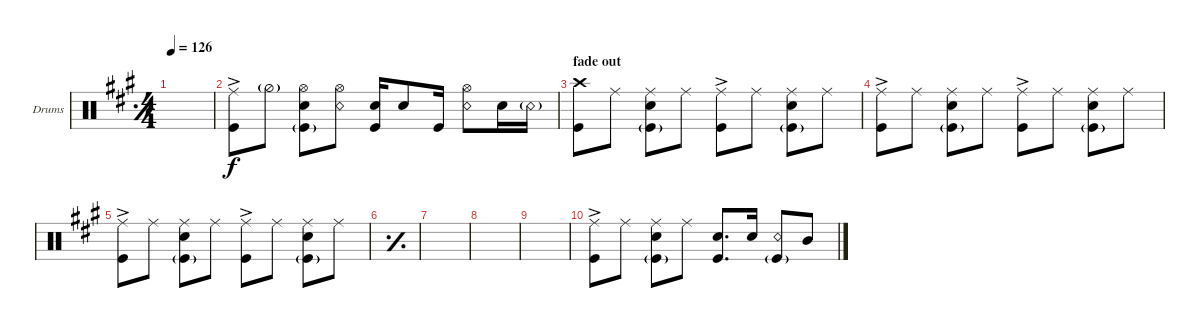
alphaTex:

\bracketExtendMode groupsimilarinstruments
\firstSystemTrackNameOrientation horizontal
\otherSystemsTrackNameOrientation horizontal
\track ("Drumkit" "Drums") {instrument percussion}
\staff {score}
\articulation defaults
\ts (4 4)
\tempo 126
\clef neutral
\simile simple
\ks a
|
("Ride (middle)"{ac} "Kick (hit)").8 "Hi-Hat (half)"{g}.8 ("Snare (hit) 2" "Kick (hit)"{g} "Hi-Hat (open)").8 ("Snare (rim shot)" "Hi-Hat (open)").8 ("Snare (hit) 2" "Kick (hit)").16 "Snare (hit) 2".8 "Kick (hit)".16 ("Snare (rim shot)" "Hi-Hat (open)").8 "Snare (hit) 2".16 "Snare (rim shot)"{g}.16 |
\section ("" "fade out")
("Crash high (hit)" "Kick (hit)").8 "Ride (middle)".8 ("Ride (middle)" "Snare (hit) 2" "Kick (hit)"{g}).8 "Ride (middle)".8 ("Ride (middle)"{ac} "Kick (hit)").8 "Ride (middle)".8 ("Ride (middle)" "Snare (hit) 2" "Kick (hit)"{g}).8 "Ride (middle)".8 |
("Ride (middle)"{ac} "Kick (hit)").8 "Ride (middle)".8 ("Ride (middle)" "Snare (hit) 2" "Kick (hit)"{g}).8 "Ride (middle)".8 ("Ride (middle)"{ac} "Kick (hit)").8 "Ride (middle)".8 ("Ride (middle)" "Snare (hit) 2" "Kick (hit)"{g}).8 "Ride (middle)".8 |
("Ride (middle)"{ac} "Kick (hit)").8 "Ride (middle)".8 ("Ride (middle)" "Snare (hit) 2" "Kick (hit)"{g}).8 "Ride (middle)".8 ("Ride (middle)"{ac} "Kick (hit)").8 "Ride (middle)".8 ("Ride (middle)" "Snare (hit) 2" "Kick (hit)"{g}).8 "Ride (middle)".8 |
\simile simple
|
|
|
|
\simile none
("Ride (middle)"{ac} "Kick (hit)").8 "Ride (middle)".8 ("Ride (middle)" "Snare (hit) 2" "Kick (hit)"{g}).8 "Ride (middle)".8 ("Snare (hit) 2" "Kick (hit)").8{d} "Snare (hit) 2".16 ("Snare (rim shot)" "Kick (hit)"{g}).8 "Mid Tom (hit)".8
